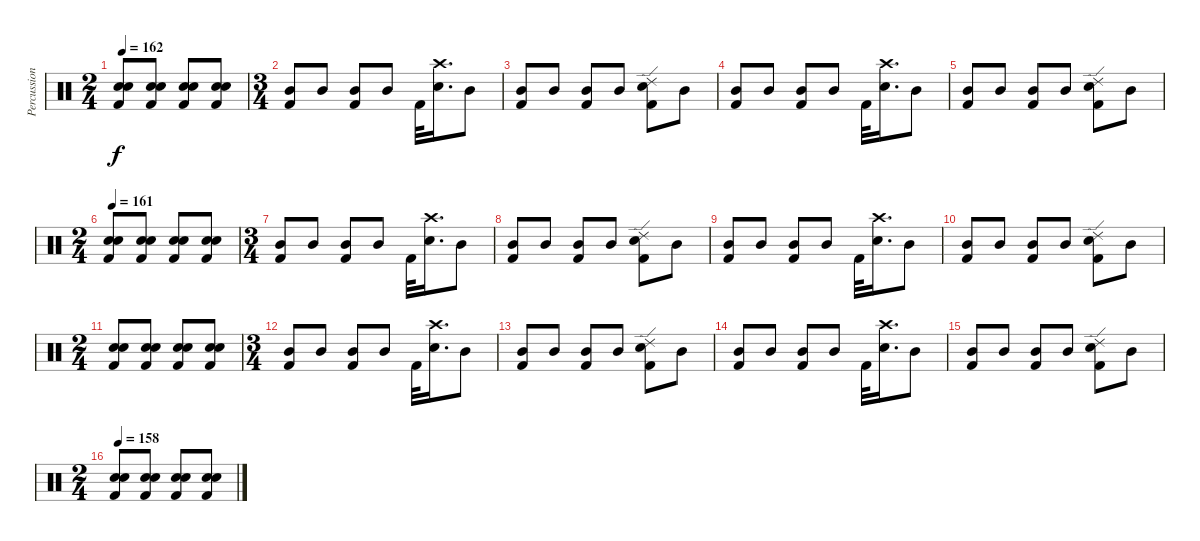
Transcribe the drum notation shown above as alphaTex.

\track ("Percussion" "Percussion") {instrument percussion}
\staff {score}
\articulation defaults
\ts (2 4)
\tempo 162
\clef neutral
\ks c
("Snare (hit) 2" "Electric Snare (hit)" "Kick (hit) 2").8{dy f} ("Snare (hit) 2" "Electric Snare (hit)" "Kick (hit) 2").8 ("Snare (hit) 2" "Electric Snare (hit)" "Kick (hit) 2").8 ("Snare (hit) 2" "Electric Snare (hit)" "Kick (hit) 2").8 |
\ts (3 4)
("Mid Tom (hit)" "Kick (hit) 2").8 "Mid Tom (hit)".8 ("Mid Tom (hit)" "Kick (hit) 2").8 "Mid Tom (hit)".8 "Kick (hit) 2".32 ("Snare (hit) 2" "Crash high (hit)").16{d} "Mid Tom (hit)".8 |
("Mid Tom (hit)" "Kick (hit) 2").8 "Mid Tom (hit)".8 ("Mid Tom (hit)" "Kick (hit) 2").8 "Mid Tom (hit)".8 ("Snare (hit) 2" "Ride (edge) 2" "Kick (hit) 2").8 "Mid Tom (hit)".8 |
("Mid Tom (hit)" "Kick (hit) 2").8 "Mid Tom (hit)".8 ("Mid Tom (hit)" "Kick (hit) 2").8 "Mid Tom (hit)".8 "Kick (hit) 2".32 ("Snare (hit) 2" "Crash high (hit)").16{d} "Mid Tom (hit)".8 |
("Mid Tom (hit)" "Kick (hit) 2").8 "Mid Tom (hit)".8 ("Mid Tom (hit)" "Kick (hit) 2").8 "Mid Tom (hit)".8 ("Snare (hit) 2" "Ride (edge) 2" "Kick (hit) 2").8 "Mid Tom (hit)".8 |
\ts (2 4)
\tempo 161
("Snare (hit) 2" "Electric Snare (hit)" "Kick (hit) 2").8 ("Snare (hit) 2" "Electric Snare (hit)" "Kick (hit) 2").8 ("Snare (hit) 2" "Electric Snare (hit)" "Kick (hit) 2").8 ("Snare (hit) 2" "Electric Snare (hit)" "Kick (hit) 2").8 |
\ts (3 4)
("Mid Tom (hit)" "Kick (hit) 2").8 "Mid Tom (hit)".8 ("Mid Tom (hit)" "Kick (hit) 2").8 "Mid Tom (hit)".8 "Kick (hit) 2".32 ("Snare (hit) 2" "Crash high (hit)").16{d} "Mid Tom (hit)".8 |
("Mid Tom (hit)" "Kick (hit) 2").8 "Mid Tom (hit)".8 ("Mid Tom (hit)" "Kick (hit) 2").8 "Mid Tom (hit)".8 ("Snare (hit) 2" "Ride (edge) 2" "Kick (hit) 2").8 "Mid Tom (hit)".8 |
("Mid Tom (hit)" "Kick (hit) 2").8 "Mid Tom (hit)".8 ("Mid Tom (hit)" "Kick (hit) 2").8 "Mid Tom (hit)".8 "Kick (hit) 2".32 ("Snare (hit) 2" "Crash high (hit)").16{d} "Mid Tom (hit)".8 |
("Mid Tom (hit)" "Kick (hit) 2").8 "Mid Tom (hit)".8 ("Mid Tom (hit)" "Kick (hit) 2").8 "Mid Tom (hit)".8 ("Snare (hit) 2" "Ride (edge) 2" "Kick (hit) 2").8 "Mid Tom (hit)".8 |
\ts (2 4)
("Snare (hit) 2" "Electric Snare (hit)" "Kick (hit) 2").8 ("Snare (hit) 2" "Electric Snare (hit)" "Kick (hit) 2").8 ("Snare (hit) 2" "Electric Snare (hit)" "Kick (hit) 2").8 ("Snare (hit) 2" "Electric Snare (hit)" "Kick (hit) 2").8 |
\ts (3 4)
("Mid Tom (hit)" "Kick (hit) 2").8 "Mid Tom (hit)".8 ("Mid Tom (hit)" "Kick (hit) 2").8 "Mid Tom (hit)".8 "Kick (hit) 2".32 ("Snare (hit) 2" "Crash high (hit)").16{d} "Mid Tom (hit)".8 |
("Mid Tom (hit)" "Kick (hit) 2").8 "Mid Tom (hit)".8 ("Mid Tom (hit)" "Kick (hit) 2").8 "Mid Tom (hit)".8 ("Snare (hit) 2" "Ride (edge) 2" "Kick (hit) 2").8 "Mid Tom (hit)".8 |
("Mid Tom (hit)" "Kick (hit) 2").8 "Mid Tom (hit)".8 ("Mid Tom (hit)" "Kick (hit) 2").8 "Mid Tom (hit)".8 "Kick (hit) 2".32 ("Snare (hit) 2" "Crash high (hit)").16{d} "Mid Tom (hit)".8 |
("Mid Tom (hit)" "Kick (hit) 2").8 "Mid Tom (hit)".8 ("Mid Tom (hit)" "Kick (hit) 2").8 "Mid Tom (hit)".8 ("Snare (hit) 2" "Ride (edge) 2" "Kick (hit) 2").8 "Mid Tom (hit)".8 |
\ts (2 4)
\tempo 158
("Snare (hit) 2" "Electric Snare (hit)" "Kick (hit) 2").8 ("Snare (hit) 2" "Electric Snare (hit)" "Kick (hit) 2").8 ("Snare (hit) 2" "Electric Snare (hit)" "Kick (hit) 2").8 ("Snare (hit) 2" "Electric Snare (hit)" "Kick (hit) 2").8
